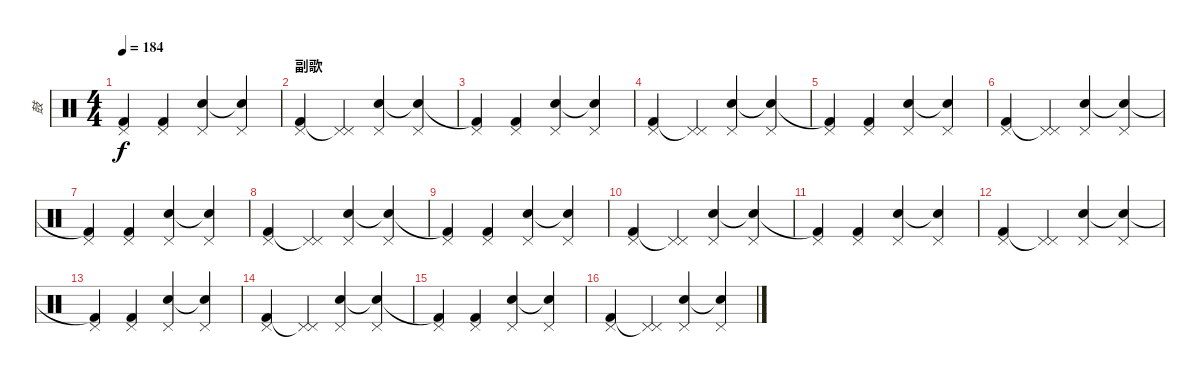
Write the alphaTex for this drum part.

\track ("鼓" "鼓") {instrument percussion}
\staff {score}
\articulation defaults
\ts (4 4)
\tempo 184
\clef neutral
\ks c
("Pedal Hi-Hat (hit)" "Kick (hit) 2"{t}).4{dy f} ("Pedal Hi-Hat (hit)" "Kick (hit) 2").4 ("Pedal Hi-Hat (hit)" "Electric Snare (hit)").4 ("Pedal Hi-Hat (hit)" "Snare (hit)"{t}).4 |
\section ("" "副歌")
("Pedal Hi-Hat (hit)" "Kick (hit) 2").4{volume 12} ("Pedal Hi-Hat (hit)" "Pedal Hi-Hat (hit)"{t}).4 ("Pedal Hi-Hat (hit)" "Electric Snare (hit)").4 ("Pedal Hi-Hat (hit)" "Snare (hit)"{t}).4 |
("Pedal Hi-Hat (hit)" "Kick (hit) 2"{t}).4 ("Pedal Hi-Hat (hit)" "Kick (hit) 2").4 ("Pedal Hi-Hat (hit)" "Electric Snare (hit)").4 ("Pedal Hi-Hat (hit)" "Snare (hit)"{t}).4 |
("Pedal Hi-Hat (hit)" "Kick (hit) 2").4 ("Pedal Hi-Hat (hit)" "Pedal Hi-Hat (hit)"{t}).4 ("Pedal Hi-Hat (hit)" "Electric Snare (hit)").4 ("Pedal Hi-Hat (hit)" "Snare (hit)"{t}).4 |
("Pedal Hi-Hat (hit)" "Kick (hit) 2"{t}).4 ("Pedal Hi-Hat (hit)" "Kick (hit) 2").4 ("Pedal Hi-Hat (hit)" "Electric Snare (hit)").4 ("Pedal Hi-Hat (hit)" "Snare (hit)"{t}).4 |
("Pedal Hi-Hat (hit)" "Kick (hit) 2").4 ("Pedal Hi-Hat (hit)" "Pedal Hi-Hat (hit)"{t}).4 ("Pedal Hi-Hat (hit)" "Electric Snare (hit)").4 ("Pedal Hi-Hat (hit)" "Snare (hit)"{t}).4 |
("Pedal Hi-Hat (hit)" "Kick (hit) 2"{t}).4 ("Pedal Hi-Hat (hit)" "Kick (hit) 2").4 ("Pedal Hi-Hat (hit)" "Electric Snare (hit)").4 ("Pedal Hi-Hat (hit)" "Snare (hit)"{t}).4 |
("Pedal Hi-Hat (hit)" "Kick (hit) 2").4 ("Pedal Hi-Hat (hit)" "Pedal Hi-Hat (hit)"{t}).4 ("Pedal Hi-Hat (hit)" "Electric Snare (hit)").4 ("Pedal Hi-Hat (hit)" "Snare (hit)"{t}).4 |
("Pedal Hi-Hat (hit)" "Kick (hit) 2"{t}).4 ("Pedal Hi-Hat (hit)" "Kick (hit) 2").4 ("Pedal Hi-Hat (hit)" "Electric Snare (hit)").4 ("Pedal Hi-Hat (hit)" "Snare (hit)"{t}).4 |
("Pedal Hi-Hat (hit)" "Kick (hit) 2").4 ("Pedal Hi-Hat (hit)" "Pedal Hi-Hat (hit)"{t}).4 ("Pedal Hi-Hat (hit)" "Electric Snare (hit)").4 ("Pedal Hi-Hat (hit)" "Snare (hit)"{t}).4 |
("Pedal Hi-Hat (hit)" "Kick (hit) 2"{t}).4 ("Pedal Hi-Hat (hit)" "Kick (hit) 2").4 ("Pedal Hi-Hat (hit)" "Electric Snare (hit)").4 ("Pedal Hi-Hat (hit)" "Snare (hit)"{t}).4 |
("Pedal Hi-Hat (hit)" "Kick (hit) 2").4 ("Pedal Hi-Hat (hit)" "Pedal Hi-Hat (hit)"{t}).4 ("Pedal Hi-Hat (hit)" "Electric Snare (hit)").4 ("Pedal Hi-Hat (hit)" "Snare (hit)"{t}).4 |
("Pedal Hi-Hat (hit)" "Kick (hit) 2"{t}).4 ("Pedal Hi-Hat (hit)" "Kick (hit) 2").4 ("Pedal Hi-Hat (hit)" "Electric Snare (hit)").4 ("Pedal Hi-Hat (hit)" "Snare (hit)"{t}).4 |
("Pedal Hi-Hat (hit)" "Kick (hit) 2").4 ("Pedal Hi-Hat (hit)" "Pedal Hi-Hat (hit)"{t}).4 ("Pedal Hi-Hat (hit)" "Electric Snare (hit)").4 ("Pedal Hi-Hat (hit)" "Snare (hit)"{t}).4 |
("Pedal Hi-Hat (hit)" "Kick (hit) 2"{t}).4 ("Pedal Hi-Hat (hit)" "Kick (hit) 2").4 ("Pedal Hi-Hat (hit)" "Electric Snare (hit)").4 ("Pedal Hi-Hat (hit)" "Snare (hit)"{t}).4 |
("Pedal Hi-Hat (hit)" "Kick (hit) 2").4 ("Pedal Hi-Hat (hit)" "Pedal Hi-Hat (hit)"{t}).4 ("Pedal Hi-Hat (hit)" "Electric Snare (hit)").4 ("Pedal Hi-Hat (hit)" "Snare (hit)"{t}).4
